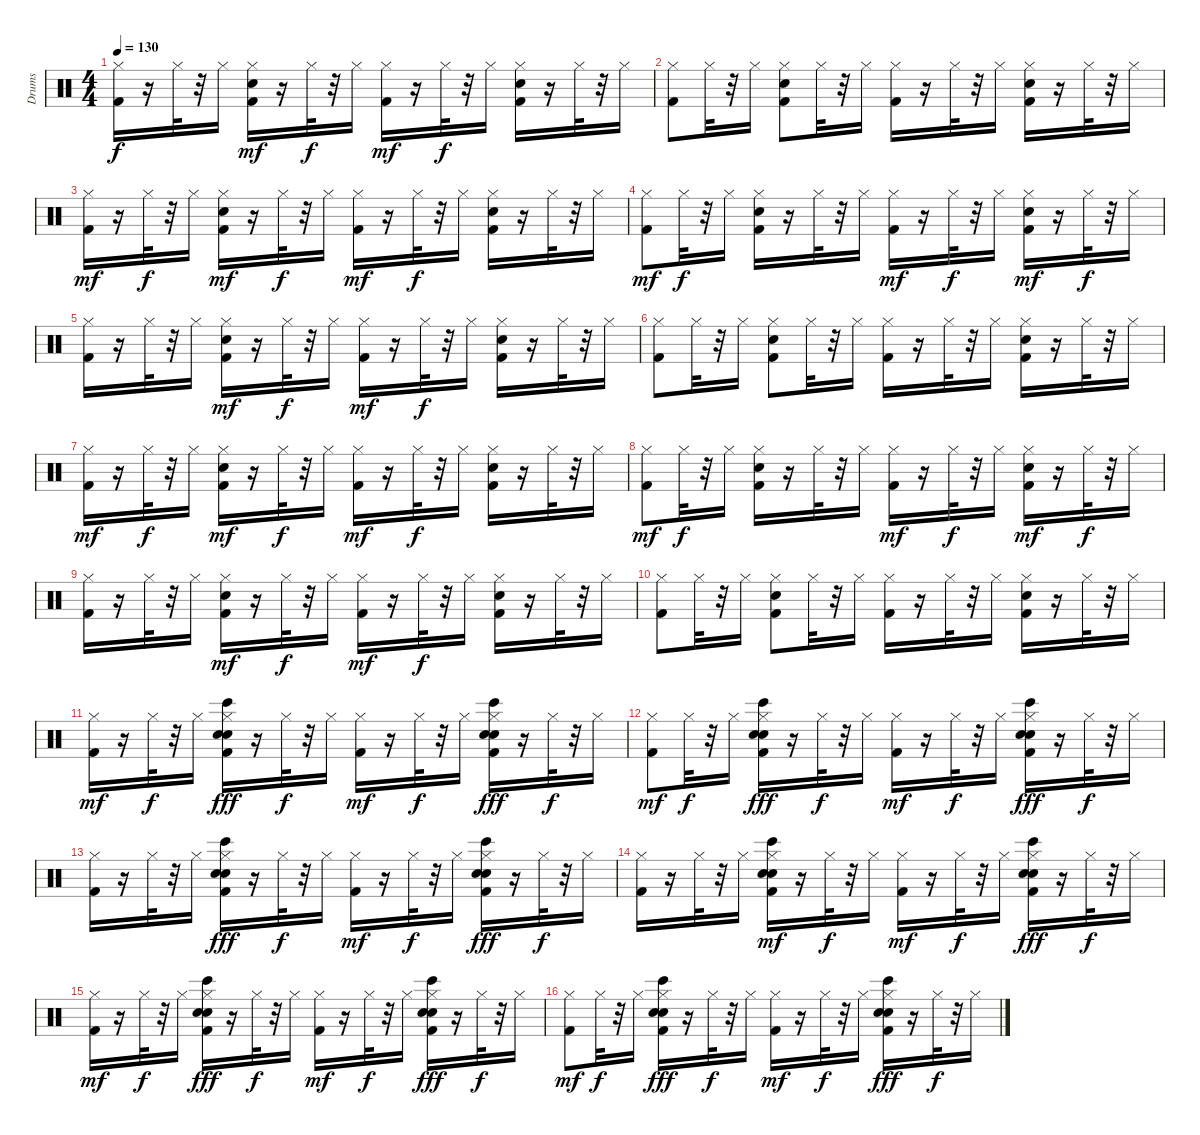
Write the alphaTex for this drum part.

\track ("Drums" "Drums") {instrument percussion}
\staff {score}
\articulation defaults
\ts (4 4)
\tempo 130
\clef neutral
\ks c
("Kick (hit) 2" "Hi-Hat (closed)").16{dy f} r.16 "Hi-Hat (closed)".32 r.32 "Hi-Hat (closed)".16 ("Kick (hit) 2" "Snare (hit) 2" "Hi-Hat (closed)").16{dy mf} r.16 "Hi-Hat (closed)".32{dy f} r.32 "Hi-Hat (closed)".16 ("Kick (hit) 2" "Hi-Hat (closed)").16{dy mf} r.16 "Hi-Hat (closed)".32{dy f} r.32 "Hi-Hat (closed)".16 ("Snare (hit) 2" "Kick (hit) 2" "Hi-Hat (closed)").16 r.16 "Hi-Hat (closed)".32 r.32 "Hi-Hat (closed)".16 |
("Hi-Hat (closed)" "Kick (hit) 2").8 "Hi-Hat (closed)".32 r.32 "Hi-Hat (closed)".16 ("Hi-Hat (closed)" "Kick (hit) 2" "Snare (hit) 2").8 "Hi-Hat (closed)".32 r.32 "Hi-Hat (closed)".16 ("Hi-Hat (closed)" "Kick (hit) 2").16 r.16 "Hi-Hat (closed)".32 r.32 "Hi-Hat (closed)".16 ("Hi-Hat (closed)" "Snare (hit) 2" "Kick (hit) 2").16 r.16 "Hi-Hat (closed)".32 r.32 "Hi-Hat (closed)".16 |
("Kick (hit) 2" "Hi-Hat (closed)").16{dy mf} r.16 "Hi-Hat (closed)".32{dy f} r.32 "Hi-Hat (closed)".16 ("Snare (hit) 2" "Kick (hit) 2" "Hi-Hat (closed)").16{dy mf} r.16 "Hi-Hat (closed)".32{dy f} r.32 "Hi-Hat (closed)".16 ("Kick (hit) 2" "Hi-Hat (closed)").16{dy mf} r.16 "Hi-Hat (closed)".32{dy f} r.32 "Hi-Hat (closed)".16 ("Snare (hit) 2" "Kick (hit) 2" "Hi-Hat (closed)").16 r.16 "Hi-Hat (closed)".32 r.32 "Hi-Hat (closed)".16 |
("Kick (hit) 2" "Hi-Hat (closed)").8{dy mf} "Hi-Hat (closed)".32{dy f} r.32 "Hi-Hat (closed)".16 ("Snare (hit) 2" "Kick (hit) 2" "Hi-Hat (closed)").16 r.16 "Hi-Hat (closed)".32 r.32 "Hi-Hat (closed)".16 ("Kick (hit) 2" "Hi-Hat (closed)").16{dy mf} r.16 "Hi-Hat (closed)".32{dy f} r.32 "Hi-Hat (closed)".16 ("Snare (hit) 2" "Kick (hit) 2" "Hi-Hat (closed)").16{dy mf} r.16 "Hi-Hat (closed)".32{dy f} r.32 "Hi-Hat (closed)".16 |
("Kick (hit) 2" "Hi-Hat (closed)").16 r.16 "Hi-Hat (closed)".32 r.32 "Hi-Hat (closed)".16 ("Kick (hit) 2" "Snare (hit) 2" "Hi-Hat (closed)").16{dy mf} r.16 "Hi-Hat (closed)".32{dy f} r.32 "Hi-Hat (closed)".16 ("Kick (hit) 2" "Hi-Hat (closed)").16{dy mf} r.16 "Hi-Hat (closed)".32{dy f} r.32 "Hi-Hat (closed)".16 ("Snare (hit) 2" "Kick (hit) 2" "Hi-Hat (closed)").16 r.16 "Hi-Hat (closed)".32 r.32 "Hi-Hat (closed)".16 |
("Hi-Hat (closed)" "Kick (hit) 2").8 "Hi-Hat (closed)".32 r.32 "Hi-Hat (closed)".16 ("Hi-Hat (closed)" "Kick (hit) 2" "Snare (hit) 2").8 "Hi-Hat (closed)".32 r.32 "Hi-Hat (closed)".16 ("Hi-Hat (closed)" "Kick (hit) 2").16 r.16 "Hi-Hat (closed)".32 r.32 "Hi-Hat (closed)".16 ("Hi-Hat (closed)" "Snare (hit) 2" "Kick (hit) 2").16 r.16 "Hi-Hat (closed)".32 r.32 "Hi-Hat (closed)".16 |
("Kick (hit) 2" "Hi-Hat (closed)").16{dy mf} r.16 "Hi-Hat (closed)".32{dy f} r.32 "Hi-Hat (closed)".16 ("Snare (hit) 2" "Kick (hit) 2" "Hi-Hat (closed)").16{dy mf} r.16 "Hi-Hat (closed)".32{dy f} r.32 "Hi-Hat (closed)".16 ("Kick (hit) 2" "Hi-Hat (closed)").16{dy mf} r.16 "Hi-Hat (closed)".32{dy f} r.32 "Hi-Hat (closed)".16 ("Snare (hit) 2" "Kick (hit) 2" "Hi-Hat (closed)").16 r.16 "Hi-Hat (closed)".32 r.32 "Hi-Hat (closed)".16 |
("Kick (hit) 2" "Hi-Hat (closed)").8{dy mf} "Hi-Hat (closed)".32{dy f} r.32 "Hi-Hat (closed)".16 ("Snare (hit) 2" "Kick (hit) 2" "Hi-Hat (closed)").16 r.16 "Hi-Hat (closed)".32 r.32 "Hi-Hat (closed)".16 ("Kick (hit) 2" "Hi-Hat (closed)").16{dy mf} r.16 "Hi-Hat (closed)".32{dy f} r.32 "Hi-Hat (closed)".16 ("Snare (hit) 2" "Kick (hit) 2" "Hi-Hat (closed)").16{dy mf} r.16 "Hi-Hat (closed)".32{dy f} r.32 "Hi-Hat (closed)".16 |
("Kick (hit) 2" "Hi-Hat (closed)").16 r.16 "Hi-Hat (closed)".32 r.32 "Hi-Hat (closed)".16 ("Kick (hit) 2" "Snare (hit) 2" "Hi-Hat (closed)").16{dy mf} r.16 "Hi-Hat (closed)".32{dy f} r.32 "Hi-Hat (closed)".16 ("Kick (hit) 2" "Hi-Hat (closed)").16{dy mf} r.16 "Hi-Hat (closed)".32{dy f} r.32 "Hi-Hat (closed)".16 ("Snare (hit) 2" "Kick (hit) 2" "Hi-Hat (closed)").16 r.16 "Hi-Hat (closed)".32 r.32 "Hi-Hat (closed)".16 |
("Hi-Hat (closed)" "Kick (hit) 2").8 "Hi-Hat (closed)".32 r.32 "Hi-Hat (closed)".16 ("Hi-Hat (closed)" "Kick (hit) 2" "Snare (hit) 2").8 "Hi-Hat (closed)".32 r.32 "Hi-Hat (closed)".16 ("Hi-Hat (closed)" "Kick (hit) 2").16 r.16 "Hi-Hat (closed)".32 r.32 "Hi-Hat (closed)".16 ("Hi-Hat (closed)" "Snare (hit) 2" "Kick (hit) 2").16 r.16 "Hi-Hat (closed)".32 r.32 "Hi-Hat (closed)".16 |
("Kick (hit) 2" "Hi-Hat (closed)").16{dy mf} r.16 "Hi-Hat (closed)".32{dy f} r.32 "Hi-Hat (closed)".16 ("Snare (hit) 2" "Kick (hit) 2" "Hi-Hat (closed)" "Bongo High (hit)" "Hand Clap (hit)").16{dy fff} r.16 "Hi-Hat (closed)".32{dy f} r.32 "Hi-Hat (closed)".16 ("Hi-Hat (closed)" "Kick (hit) 2").16{dy mf} r.16 "Hi-Hat (closed)".32{dy f} r.32 "Hi-Hat (closed)".16 ("Snare (hit) 2" "Hi-Hat (closed)" "Bongo High (hit)" "Kick (hit) 2" "Hand Clap (hit)").16{dy fff} r.16 "Hi-Hat (closed)".32{dy f} r.32 "Hi-Hat (closed)".16 |
("Kick (hit) 2" "Hi-Hat (closed)").8{dy mf} "Hi-Hat (closed)".32{dy f} r.32 "Hi-Hat (closed)".16 ("Snare (hit) 2" "Kick (hit) 2" "Bongo High (hit)" "Hi-Hat (closed)" "Hand Clap (hit)").16{dy fff} r.16 "Hi-Hat (closed)".32{dy f} r.32 "Hi-Hat (closed)".16 ("Hi-Hat (closed)" "Kick (hit) 2").16{dy mf} r.16 "Hi-Hat (closed)".32{dy f} r.32 "Hi-Hat (closed)".16 ("Kick (hit) 2" "Hi-Hat (closed)" "Snare (hit) 2" "Bongo High (hit)" "Hand Clap (hit)").16{dy fff} r.16 "Hi-Hat (closed)".32{dy f} r.32 "Hi-Hat (closed)".16 |
("Hi-Hat (closed)" "Kick (hit) 2").16 r.16 "Hi-Hat (closed)".32 r.32 "Hi-Hat (closed)".16 ("Bongo High (hit)" "Kick (hit) 2" "Snare (hit) 2" "Hi-Hat (closed)" "Hand Clap (hit)").16{dy fff} r.16 "Hi-Hat (closed)".32{dy f} r.32 "Hi-Hat (closed)".16 ("Kick (hit) 2" "Hi-Hat (closed)").16{dy mf} r.16 "Hi-Hat (closed)".32{dy f} r.32 "Hi-Hat (closed)".16 ("Snare (hit) 2" "Kick (hit) 2" "Hi-Hat (closed)" "Bongo High (hit)" "Hand Clap (hit)").16{dy fff} r.16 "Hi-Hat (closed)".32{dy f} r.32 "Hi-Hat (closed)".16 |
("Kick (hit) 2" "Hi-Hat (closed)").16 r.16 "Hi-Hat (closed)".32 r.32 "Hi-Hat (closed)".16 ("Bongo High (hit)" "Hand Clap (hit)" "Kick (hit) 2" "Snare (hit) 2" "Hi-Hat (closed)").16{dy mf} r.16 "Hi-Hat (closed)".32{dy f} r.32 "Hi-Hat (closed)".16 ("Kick (hit) 2" "Hi-Hat (closed)").16{dy mf} r.16 "Hi-Hat (closed)".32{dy f} r.32 "Hi-Hat (closed)".16 ("Bongo High (hit)" "Hand Clap (hit)" "Snare (hit) 2" "Kick (hit) 2" "Hi-Hat (closed)").16{dy fff} r.16 "Hi-Hat (closed)".32{dy f} r.32 "Hi-Hat (closed)".16 |
("Kick (hit) 2" "Hi-Hat (closed)").16{dy mf} r.16 "Hi-Hat (closed)".32{dy f} r.32 "Hi-Hat (closed)".16 ("Snare (hit) 2" "Kick (hit) 2" "Hi-Hat (closed)" "Bongo High (hit)" "Hand Clap (hit)").16{dy fff} r.16 "Hi-Hat (closed)".32{dy f} r.32 "Hi-Hat (closed)".16 ("Hi-Hat (closed)" "Kick (hit) 2").16{dy mf} r.16 "Hi-Hat (closed)".32{dy f} r.32 "Hi-Hat (closed)".16 ("Snare (hit) 2" "Hi-Hat (closed)" "Bongo High (hit)" "Kick (hit) 2" "Hand Clap (hit)").16{dy fff} r.16 "Hi-Hat (closed)".32{dy f} r.32 "Hi-Hat (closed)".16 |
("Kick (hit) 2" "Hi-Hat (closed)").8{dy mf} "Hi-Hat (closed)".32{dy f} r.32 "Hi-Hat (closed)".16 ("Snare (hit) 2" "Kick (hit) 2" "Bongo High (hit)" "Hi-Hat (closed)" "Hand Clap (hit)").16{dy fff} r.16 "Hi-Hat (closed)".32{dy f} r.32 "Hi-Hat (closed)".16 ("Hi-Hat (closed)" "Kick (hit) 2").16{dy mf} r.16 "Hi-Hat (closed)".32{dy f} r.32 "Hi-Hat (closed)".16 ("Kick (hit) 2" "Hi-Hat (closed)" "Snare (hit) 2" "Bongo High (hit)" "Hand Clap (hit)").16{dy fff} r.16 "Hi-Hat (closed)".32{dy f} r.32 "Hi-Hat (closed)".16
